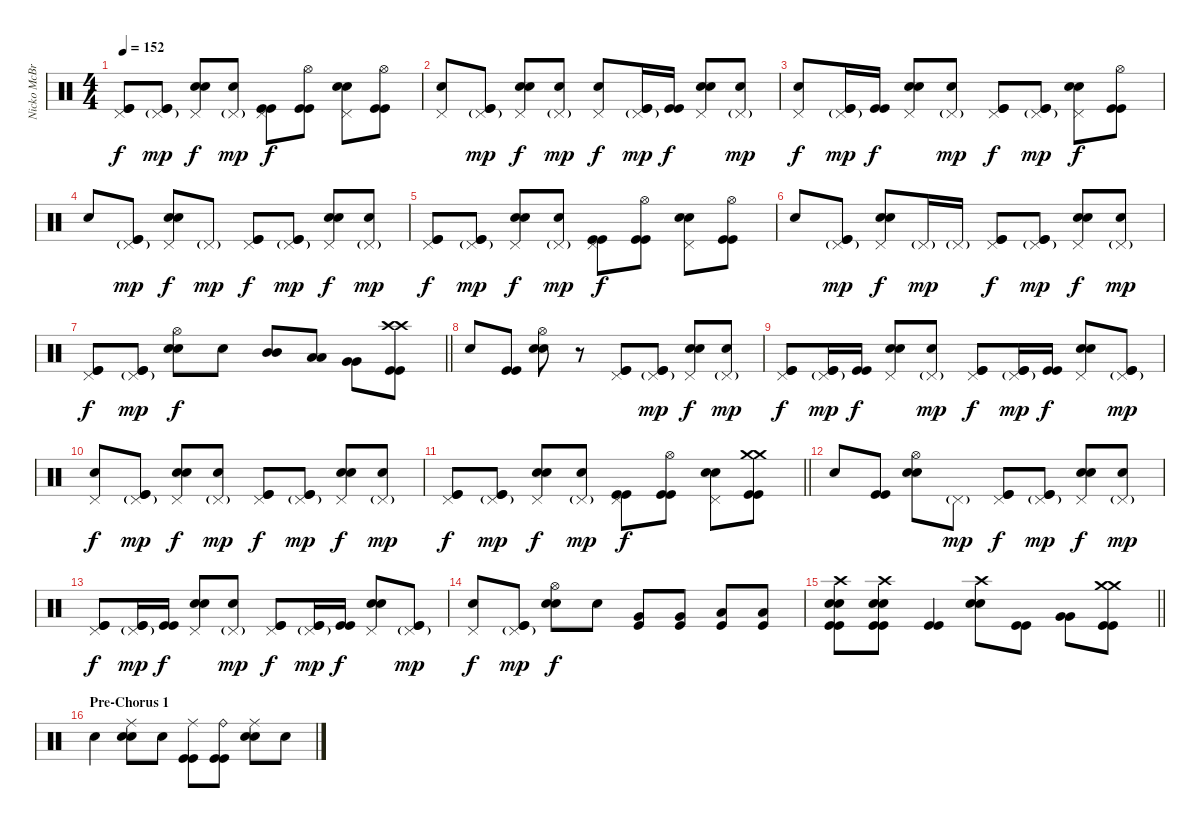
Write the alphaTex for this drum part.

\track ("Nicko McBrain" "Nicko McBr") {instrument percussion}
\staff {score}
\articulation defaults
\ts (4 4)
\tempo 152
\clef neutral
\ks c
("Pedal Hi-Hat (hit)" "Kick (hit)" "Kick (hit)").8{dy f} ("Pedal Hi-Hat (hit)"{g} "Kick (hit)" "Kick (hit)").8{dy mp} ("Pedal Hi-Hat (hit)" "Electric Snare (hit)" "Electric Snare (hit)").8{dy f} ("Pedal Hi-Hat (hit)"{g} "Snare (hit)").8{dy mp} ("Pedal Hi-Hat (hit)" "Kick (hit)" "Kick (hit)").8{dy f} ("Hi-Hat (open)" "Kick (hit)" "Kick (hit)").8 ("Pedal Hi-Hat (hit)" "Electric Snare (hit)" "Electric Snare (hit)").8 ("Hi-Hat (open)" "Kick (hit)" "Kick (hit)").8 |
("Pedal Hi-Hat (hit)" "Snare (hit)").8 ("Pedal Hi-Hat (hit)"{g} "Kick (hit)" "Kick (hit)").8{dy mp} ("Pedal Hi-Hat (hit)" "Electric Snare (hit)" "Electric Snare (hit)").8{dy f} ("Pedal Hi-Hat (hit)"{g} "Snare (hit)").8{dy mp} ("Pedal Hi-Hat (hit)" "Snare (hit)").8{dy f} ("Pedal Hi-Hat (hit)"{g} "Kick (hit)" "Kick (hit)").16{dy mp} ("Kick (hit)" "Kick (hit)").16{dy f} ("Pedal Hi-Hat (hit)" "Electric Snare (hit)" "Electric Snare (hit)").8 ("Pedal Hi-Hat (hit)"{g} "Snare (hit)").8{dy mp} |
("Pedal Hi-Hat (hit)" "Snare (hit)").8{dy f} ("Pedal Hi-Hat (hit)"{g} "Kick (hit)" "Kick (hit)").16{dy mp} ("Kick (hit)" "Kick (hit)").16{dy f} ("Pedal Hi-Hat (hit)" "Electric Snare (hit)" "Electric Snare (hit)").8 ("Pedal Hi-Hat (hit)"{g} "Snare (hit)").8{dy mp} ("Pedal Hi-Hat (hit)" "Kick (hit)" "Kick (hit)").8{dy f} ("Pedal Hi-Hat (hit)"{g} "Kick (hit)" "Kick (hit)").8{dy mp} ("Pedal Hi-Hat (hit)" "Electric Snare (hit)" "Electric Snare (hit)").8{dy f} ("Hi-Hat (open)" "Kick (hit)" "Kick (hit)").8 |
"Snare (hit)".8 ("Pedal Hi-Hat (hit)"{g} "Kick (hit)" "Kick (hit)").8{dy mp} ("Pedal Hi-Hat (hit)" "Electric Snare (hit)" "Electric Snare (hit)").8{dy f} "Pedal Hi-Hat (hit)"{g}.8{dy mp} ("Pedal Hi-Hat (hit)" "Kick (hit)" "Kick (hit)").8{dy f} ("Pedal Hi-Hat (hit)"{g} "Kick (hit)" "Kick (hit)").8{dy mp} ("Pedal Hi-Hat (hit)" "Electric Snare (hit)" "Electric Snare (hit)").8{dy f} ("Pedal Hi-Hat (hit)"{g} "Snare (hit)").8{dy mp} |
("Pedal Hi-Hat (hit)" "Kick (hit)" "Kick (hit)").8{dy f} ("Pedal Hi-Hat (hit)"{g} "Kick (hit)" "Kick (hit)").8{dy mp} ("Pedal Hi-Hat (hit)" "Electric Snare (hit)" "Electric Snare (hit)").8{dy f} ("Pedal Hi-Hat (hit)"{g} "Snare (hit)").8{dy mp} ("Pedal Hi-Hat (hit)" "Kick (hit)" "Kick (hit)").8{dy f} ("Hi-Hat (open)" "Kick (hit)" "Kick (hit)").8 ("Pedal Hi-Hat (hit)" "Electric Snare (hit)" "Electric Snare (hit)").8 ("Hi-Hat (open)" "Kick (hit)" "Kick (hit)").8 |
"Snare (hit)".8 ("Pedal Hi-Hat (hit)"{g} "Kick (hit)" "Kick (hit)").8{dy mp} ("Pedal Hi-Hat (hit)" "Electric Snare (hit)" "Electric Snare (hit)").8{dy f} "Pedal Hi-Hat (hit)"{g}.16{dy mp} "Pedal Hi-Hat (hit)"{g}.16 ("Pedal Hi-Hat (hit)" "Kick (hit)" "Kick (hit)").8{dy f} ("Pedal Hi-Hat (hit)"{g} "Kick (hit)" "Kick (hit)").8{dy mp} ("Pedal Hi-Hat (hit)" "Electric Snare (hit)" "Electric Snare (hit)").8{dy f} ("Pedal Hi-Hat (hit)"{g} "Snare (hit)").8{dy mp} |
\barLineRight lightlight
("Pedal Hi-Hat (hit)" "Kick (hit)" "Kick (hit)").8{dy f} ("Pedal Hi-Hat (hit)"{g} "Kick (hit)" "Kick (hit)").8{dy mp} ("Hi-Hat (open)" "Electric Snare (hit)" "Electric Snare (hit)").8{dy f} "Snare (hit)".8 ("Mid Tom (hit)" "Mid Tom (hit)").8 ("Low Tom (hit)" "Low Tom (hit)").8 ("Very Low Tom (hit)" "Very Low Tom (hit)").8 ("Crash high (hit)" "Crash high (hit)" "Kick (hit)" "Kick (hit)").8 |
"Snare (hit)".8 ("Kick (hit)" "Kick (hit)").8 ("Hi-Hat (open)" "Electric Snare (hit)" "Electric Snare (hit)").8 r.8 ("Pedal Hi-Hat (hit)" "Kick (hit)" "Kick (hit)").8 ("Pedal Hi-Hat (hit)"{g} "Kick (hit)" "Kick (hit)").8{dy mp} ("Pedal Hi-Hat (hit)" "Electric Snare (hit)" "Electric Snare (hit)").8{dy f} ("Pedal Hi-Hat (hit)"{g} "Snare (hit)").8{dy mp} |
("Pedal Hi-Hat (hit)" "Kick (hit)" "Kick (hit)").8{dy f} ("Pedal Hi-Hat (hit)"{g} "Kick (hit)" "Kick (hit)").16{dy mp} ("Kick (hit)" "Kick (hit)").16{dy f} ("Pedal Hi-Hat (hit)" "Electric Snare (hit)" "Electric Snare (hit)").8 ("Pedal Hi-Hat (hit)"{g} "Snare (hit)").8{dy mp} ("Pedal Hi-Hat (hit)" "Kick (hit)" "Kick (hit)").8{dy f} ("Pedal Hi-Hat (hit)"{g} "Kick (hit)" "Kick (hit)").16{dy mp} ("Kick (hit)" "Kick (hit)").16{dy f} ("Pedal Hi-Hat (hit)" "Electric Snare (hit)" "Electric Snare (hit)").8 ("Pedal Hi-Hat (hit)"{g} "Kick (hit)" "Kick (hit)").8{dy mp} |
("Pedal Hi-Hat (hit)" "Snare (hit)").8{dy f} ("Pedal Hi-Hat (hit)"{g} "Kick (hit)" "Kick (hit)").8{dy mp} ("Pedal Hi-Hat (hit)" "Electric Snare (hit)" "Electric Snare (hit)").8{dy f} ("Pedal Hi-Hat (hit)"{g} "Snare (hit)").8{dy mp} ("Pedal Hi-Hat (hit)" "Kick (hit)" "Kick (hit)").8{dy f} ("Pedal Hi-Hat (hit)"{g} "Kick (hit)" "Kick (hit)").8{dy mp} ("Pedal Hi-Hat (hit)" "Electric Snare (hit)" "Electric Snare (hit)").8{dy f} ("Pedal Hi-Hat (hit)"{g} "Snare (hit)").8{dy mp} |
\barLineRight lightlight
("Pedal Hi-Hat (hit)" "Kick (hit)" "Kick (hit)").8{dy f} ("Pedal Hi-Hat (hit)"{g} "Kick (hit)" "Kick (hit)").8{dy mp} ("Pedal Hi-Hat (hit)" "Electric Snare (hit)" "Electric Snare (hit)").8{dy f} ("Pedal Hi-Hat (hit)"{g} "Snare (hit)").8{dy mp} ("Pedal Hi-Hat (hit)" "Kick (hit)" "Kick (hit)").8{dy f} ("Hi-Hat (open)" "Kick (hit)" "Kick (hit)").8 ("Pedal Hi-Hat (hit)" "Electric Snare (hit)" "Electric Snare (hit)").8 ("Crash medium (hit)" "Crash medium (hit)" "Kick (hit)" "Kick (hit)").8 |
"Snare (hit)".8 ("Kick (hit)" "Kick (hit)").8 ("Hi-Hat (open)" "Electric Snare (hit)" "Electric Snare (hit)").8 "Pedal Hi-Hat (hit)"{g}.8{dy mp} ("Pedal Hi-Hat (hit)" "Kick (hit)" "Kick (hit)").8{dy f} ("Pedal Hi-Hat (hit)"{g} "Kick (hit)" "Kick (hit)").8{dy mp} ("Pedal Hi-Hat (hit)" "Electric Snare (hit)" "Electric Snare (hit)").8{dy f} ("Pedal Hi-Hat (hit)"{g} "Snare (hit)").8{dy mp} |
("Pedal Hi-Hat (hit)" "Kick (hit)" "Kick (hit)").8{dy f} ("Pedal Hi-Hat (hit)"{g} "Kick (hit)" "Kick (hit)").16{dy mp} ("Kick (hit)" "Kick (hit)").16{dy f} ("Pedal Hi-Hat (hit)" "Electric Snare (hit)" "Electric Snare (hit)").8 ("Pedal Hi-Hat (hit)"{g} "Snare (hit)").8{dy mp} ("Pedal Hi-Hat (hit)" "Kick (hit)" "Kick (hit)").8{dy f} ("Pedal Hi-Hat (hit)"{g} "Kick (hit)" "Kick (hit)").16{dy mp} ("Kick (hit)" "Kick (hit)").16{dy f} ("Pedal Hi-Hat (hit)" "Electric Snare (hit)" "Electric Snare (hit)").8 ("Pedal Hi-Hat (hit)"{g} "Kick (hit)" "Kick (hit)").8{dy mp} |
("Pedal Hi-Hat (hit)" "Snare (hit)").8{dy f} ("Pedal Hi-Hat (hit)"{g} "Kick (hit)" "Kick (hit)").8{dy mp} ("Hi-Hat (open)" "Electric Snare (hit)" "Electric Snare (hit)").8{dy f} "Snare (hit)".8 ("Very Low Tom (hit)" "Kick (hit)").8 ("Very Low Tom (hit)" "Kick (hit)").8 ("Low Floor Tom (hit)" "Kick (hit)").8 ("Low Floor Tom (hit)" "Kick (hit)").8 |
\barLineRight lightlight
("Crash high (hit)" "Electric Snare (hit)" "Electric Snare (hit)" "Kick (hit)" "Kick (hit)").8 ("Crash high (hit)" "Electric Snare (hit)" "Electric Snare (hit)" "Kick (hit)" "Kick (hit)").8 ("Kick (hit)" "Kick (hit)").4 ("Crash high (hit)" "Electric Snare (hit)" "Electric Snare (hit)").8 ("Kick (hit)" "Kick (hit)").8 ("Very Low Tom (hit)" "Very Low Tom (hit)").8 ("Crash medium (hit)" "Crash medium (hit)" "Kick (hit)" "Kick (hit)").8 |
\section ("" "Pre-Chorus 1")
"Snare (hit)".4 ("Ride (middle)" "Electric Snare (hit)" "Electric Snare (hit)").8 "Snare (hit)".8 ("Ride (middle)" "Kick (hit)" "Kick (hit)").8 ("Ride (bell)" "Kick (hit)" "Kick (hit)").8 ("Ride (middle)" "Electric Snare (hit)" "Electric Snare (hit)").8 "Snare (hit)".8
